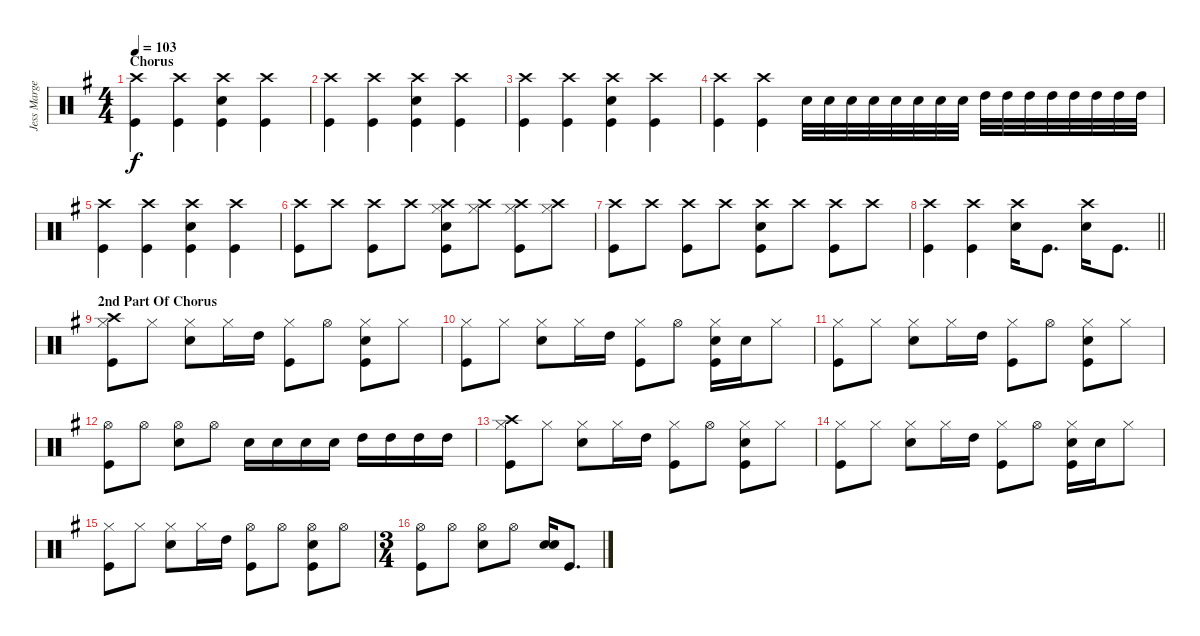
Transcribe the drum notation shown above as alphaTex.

\track ("Jess Margera" "Jess Marge") {instrument percussion}
\staff {score}
\articulation defaults
\ts (4 4)
\section ("" "Chorus")
\tempo 103
\clef neutral
\ks g
("Crash high (hit)" "Kick (hit)").4{dy f} ("Crash high (hit)" "Kick (hit)").4 ("Crash high (hit)" "Snare (hit) 2" "Kick (hit)").4 ("Crash high (hit)" "Kick (hit)").4 |
("Crash high (hit)" "Kick (hit)").4 ("Crash high (hit)" "Kick (hit)").4 ("Crash high (hit)" "Snare (hit) 2" "Kick (hit)").4 ("Crash high (hit)" "Kick (hit)").4 |
("Crash high (hit)" "Kick (hit)").4 ("Crash high (hit)" "Kick (hit)").4 ("Crash high (hit)" "Snare (hit) 2" "Kick (hit)").4 ("Crash high (hit)" "Kick (hit)").4 |
("Crash high (hit)" "Kick (hit)").4 ("Crash high (hit)" "Kick (hit)").4 "Snare (hit) 2".32 "Snare (hit) 2".32 "Snare (hit) 2".32 "Snare (hit) 2".32 "Snare (hit) 2".32 "Snare (hit) 2".32 "Snare (hit) 2".32 "Snare (hit) 2".32 "High Tom (hit)".32 "High Tom (hit)".32 "High Tom (hit)".32 "High Tom (hit)".32 "High Tom (hit)".32 "High Tom (hit)".32 "High Tom (hit)".32 "High Tom (hit)".32 |
("Crash high (hit)" "Kick (hit)").4 ("Crash high (hit)" "Kick (hit)").4 ("Crash high (hit)" "Snare (hit) 2" "Kick (hit)").4 ("Crash high (hit)" "Kick (hit)").4 |
("Crash high (hit)" "Kick (hit)").8 "Crash high (hit)".8 ("Crash high (hit)" "Kick (hit)").8 "Crash high (hit)".8 ("Crash high (hit)" "Hi-Hat (closed)" "Snare (hit) 2" "Kick (hit)").8 ("Crash high (hit)" "Hi-Hat (closed)").8 ("Crash high (hit)" "Hi-Hat (closed)" "Kick (hit)").8 ("Crash high (hit)" "Hi-Hat (closed)").8 |
("Crash high (hit)" "Kick (hit)").8 "Crash high (hit)".8 ("Crash high (hit)" "Kick (hit)").8 "Crash high (hit)".8 ("Crash high (hit)" "Snare (hit) 2" "Kick (hit)").8 "Crash high (hit)".8 ("Crash high (hit)" "Kick (hit)").8 "Crash high (hit)".8 |
\barLineRight lightlight
("Crash high (hit)" "Kick (hit)").4 ("Crash high (hit)" "Kick (hit)").4 ("Crash high (hit)" "Snare (hit) 2").16 "Kick (hit)".8{d} ("Crash high (hit)" "Snare (hit) 2").16 "Kick (hit)".8{d} |
\section ("" "2nd Part Of Chorus")
("Crash high (hit)" "Hi-Hat (closed)" "Kick (hit)").8 "Hi-Hat (closed)".8 ("Hi-Hat (closed)" "Snare (hit) 2").8 "Hi-Hat (closed)".16 "High Tom (hit)".16 ("Hi-Hat (closed)" "Kick (hit)").8 "Hi-Hat (open)".8 ("Hi-Hat (closed)" "Snare (hit) 2" "Kick (hit)").8 "Hi-Hat (closed)".8 |
("Hi-Hat (closed)" "Kick (hit)").8 "Hi-Hat (closed)".8 ("Hi-Hat (closed)" "Snare (hit) 2").8 "Hi-Hat (closed)".16 "High Tom (hit)".16 ("Hi-Hat (closed)" "Kick (hit)").8 "Hi-Hat (open)".8 ("Hi-Hat (closed)" "Snare (hit) 2" "Kick (hit)").16 "Snare (hit) 2".16 "Hi-Hat (closed)".8 |
("Hi-Hat (closed)" "Kick (hit)").8 "Hi-Hat (closed)".8 ("Hi-Hat (closed)" "Snare (hit) 2").8 "Hi-Hat (closed)".16 "High Tom (hit)".16 ("Hi-Hat (closed)" "Kick (hit)").8 "Hi-Hat (open)".8 ("Hi-Hat (closed)" "Snare (hit) 2" "Kick (hit)").8 "Hi-Hat (closed)".8 |
("Hi-Hat (open)" "Kick (hit)").8 "Hi-Hat (open)".8 ("Hi-Hat (open)" "Snare (hit) 2").8 "Hi-Hat (open)".8 "Snare (hit) 2".16 "Snare (hit) 2".16 "Snare (hit) 2".16 "Snare (hit) 2".16 "High Tom (hit)".16 "High Tom (hit)".16 "High Tom (hit)".16 "High Tom (hit)".16 |
("Crash high (hit)" "Hi-Hat (closed)" "Kick (hit)").8 "Hi-Hat (closed)".8 ("Hi-Hat (closed)" "Snare (hit) 2").8 "Hi-Hat (closed)".16 "High Tom (hit)".16 ("Hi-Hat (closed)" "Kick (hit)").8 "Hi-Hat (open)".8 ("Hi-Hat (closed)" "Snare (hit) 2" "Kick (hit)").8 "Hi-Hat (closed)".8 |
("Hi-Hat (closed)" "Kick (hit)").8 "Hi-Hat (closed)".8 ("Hi-Hat (closed)" "Snare (hit) 2").8 "Hi-Hat (closed)".16 "High Tom (hit)".16 ("Hi-Hat (closed)" "Kick (hit)").8 "Hi-Hat (open)".8 ("Hi-Hat (closed)" "Snare (hit) 2" "Kick (hit)").16 "Snare (hit) 2".16 "Hi-Hat (closed)".8 |
("Hi-Hat (closed)" "Kick (hit)").8 "Hi-Hat (closed)".8 ("Hi-Hat (closed)" "Snare (hit) 2").8 "Hi-Hat (closed)".16 "High Tom (hit)".16 ("Hi-Hat (open)" "Kick (hit)").8 "Hi-Hat (open)".8 ("Hi-Hat (open)" "Snare (hit) 2" "Kick (hit)").8 "Hi-Hat (open)".8 |
\ts (3 4)
("Hi-Hat (open)" "Kick (hit)").8 "Hi-Hat (open)".8 ("Hi-Hat (open)" "Snare (hit) 2").8 "Hi-Hat (open)".8 ("Snare (hit) 2" "Snare (hit) 2").16 "Kick (hit)".8{d}
